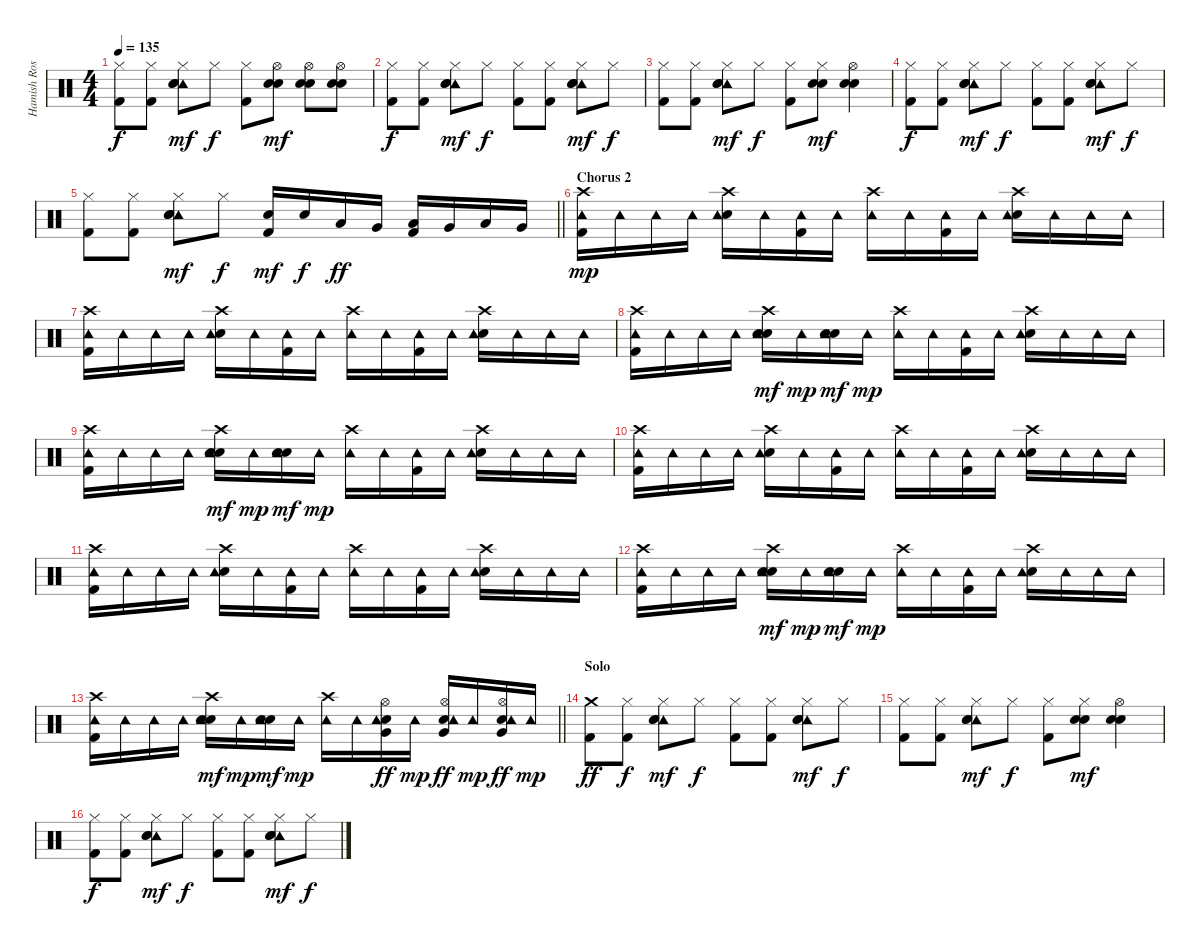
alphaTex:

\track ("Hamish Rosser (Drums Track)" "Hamish Ros") {instrument percussion}
\staff {score}
\articulation defaults
\ts (4 4)
\tempo 135
\clef neutral
\ks c
("Hi-Hat (closed)" "Kick (hit) 2").8{dy f} ("Hi-Hat (closed)" "Kick (hit) 2").8 ("Hi-Hat (closed)" "Tambourine (hit)" "Electric Snare (hit)" "Hand Clap (hit)").8{dy mf} "Hi-Hat (closed)".8{dy f} ("Hi-Hat (closed)" "Kick (hit) 2").8 ("Hi-Hat (open)" "Electric Snare (hit)" "Hand Clap (hit)").8{dy mf} ("Hi-Hat (open)" "Electric Snare (hit)" "Hand Clap (hit)").8 ("Hi-Hat (open)" "Electric Snare (hit)" "Hand Clap (hit)").8 |
("Hi-Hat (closed)" "Kick (hit) 2").8{dy f} ("Hi-Hat (closed)" "Kick (hit) 2").8 ("Hi-Hat (closed)" "Tambourine (hit)" "Electric Snare (hit)" "Hand Clap (hit)").8{dy mf} "Hi-Hat (closed)".8{dy f} ("Hi-Hat (closed)" "Kick (hit) 2").8 ("Hi-Hat (closed)" "Kick (hit) 2").8 ("Hi-Hat (closed)" "Tambourine (hit)" "Electric Snare (hit)" "Hand Clap (hit)").8{dy mf} "Hi-Hat (closed)".8{dy f} |
("Hi-Hat (closed)" "Kick (hit) 2").8 ("Hi-Hat (closed)" "Kick (hit) 2").8 ("Hi-Hat (closed)" "Tambourine (hit)" "Electric Snare (hit)" "Hand Clap (hit)").8{dy mf} "Hi-Hat (closed)".8{dy f} ("Hi-Hat (closed)" "Kick (hit) 2").8 ("Hi-Hat (closed)" "Electric Snare (hit)" "Hand Clap (hit)").8{dy mf} ("Hi-Hat (open)" "Electric Snare (hit)" "Hand Clap (hit)").4 |
("Hi-Hat (closed)" "Kick (hit) 2").8{dy f} ("Hi-Hat (closed)" "Kick (hit) 2").8 ("Hi-Hat (closed)" "Tambourine (hit)" "Electric Snare (hit)" "Hand Clap (hit)").8{dy mf} "Hi-Hat (closed)".8{dy f} ("Hi-Hat (closed)" "Kick (hit) 2").8 ("Hi-Hat (closed)" "Kick (hit) 2").8 ("Hi-Hat (closed)" "Tambourine (hit)" "Electric Snare (hit)" "Hand Clap (hit)").8{dy mf} "Hi-Hat (closed)".8{dy f} |
\barLineRight lightlight
("Hi-Hat (closed)" "Kick (hit) 2").8 ("Hi-Hat (closed)" "Kick (hit) 2").8 ("Hi-Hat (closed)" "Tambourine (hit)" "Electric Snare (hit)" "Hand Clap (hit)").8{dy mf} "Hi-Hat (closed)".8{dy f} ("Electric Snare (hit)" "Kick (hit) 2").16{dy mf} "Electric Snare (hit)".16{dy f} "Low Tom (hit)".16{dy ff} "Very Low Tom (hit)".16 ("Low Tom (hit)" "Kick (hit) 2").16 "Very Low Tom (hit)".16 "Low Tom (hit)".16 "Very Low Tom (hit)".16 |
\section ("" "Chorus 2")
("Crash high (hit)" "Tambourine (hit)" "Kick (hit) 2").16{dy mp} "Tambourine (hit)".16 "Tambourine (hit)".16 "Tambourine (hit)".16 ("Crash high (hit)" "Electric Snare (hit)" "Tambourine (hit)").16 "Tambourine (hit)".16 ("Tambourine (hit)" "Kick (hit) 2").16 "Tambourine (hit)".16 ("Crash high (hit)" "Tambourine (hit)").16 "Tambourine (hit)".16 ("Tambourine (hit)" "Kick (hit) 2").16 "Tambourine (hit)".16 ("Crash high (hit)" "Electric Snare (hit)" "Tambourine (hit)").16 "Tambourine (hit)".16 "Tambourine (hit)".16 "Tambourine (hit)".16 |
("Crash high (hit)" "Tambourine (hit)" "Kick (hit) 2").16 "Tambourine (hit)".16 "Tambourine (hit)".16 "Tambourine (hit)".16 ("Crash high (hit)" "Electric Snare (hit)" "Tambourine (hit)").16 "Tambourine (hit)".16 ("Tambourine (hit)" "Kick (hit) 2").16 "Tambourine (hit)".16 ("Crash high (hit)" "Tambourine (hit)").16 "Tambourine (hit)".16 ("Tambourine (hit)" "Kick (hit) 2").16 "Tambourine (hit)".16 ("Crash high (hit)" "Electric Snare (hit)" "Tambourine (hit)").16 "Tambourine (hit)".16 "Tambourine (hit)".16 "Tambourine (hit)".16 |
("Crash high (hit)" "Tambourine (hit)" "Kick (hit) 2").16 "Tambourine (hit)".16 "Tambourine (hit)".16 "Tambourine (hit)".16 ("Crash high (hit)" "Electric Snare (hit)" "Tambourine (hit)" "Hand Clap (hit)").16{dy mf} "Tambourine (hit)".16{dy mp} ("Electric Snare (hit)" "Tambourine (hit)" "Hand Clap (hit)").16{dy mf} "Tambourine (hit)".16{dy mp} ("Crash high (hit)" "Tambourine (hit)").16 "Tambourine (hit)".16 ("Tambourine (hit)" "Kick (hit) 2").16 "Tambourine (hit)".16 ("Crash high (hit)" "Electric Snare (hit)" "Tambourine (hit)").16 "Tambourine (hit)".16 "Tambourine (hit)".16 "Tambourine (hit)".16 |
("Crash high (hit)" "Tambourine (hit)" "Kick (hit) 2").16 "Tambourine (hit)".16 "Tambourine (hit)".16 "Tambourine (hit)".16 ("Crash high (hit)" "Electric Snare (hit)" "Tambourine (hit)" "Hand Clap (hit)").16{dy mf} "Tambourine (hit)".16{dy mp} ("Electric Snare (hit)" "Tambourine (hit)" "Hand Clap (hit)").16{dy mf} "Tambourine (hit)".16{dy mp} ("Crash high (hit)" "Tambourine (hit)").16 "Tambourine (hit)".16 ("Tambourine (hit)" "Kick (hit) 2").16 "Tambourine (hit)".16 ("Crash high (hit)" "Electric Snare (hit)" "Tambourine (hit)").16 "Tambourine (hit)".16 "Tambourine (hit)".16 "Tambourine (hit)".16 |
("Crash high (hit)" "Tambourine (hit)" "Kick (hit) 2").16 "Tambourine (hit)".16 "Tambourine (hit)".16 "Tambourine (hit)".16 ("Crash high (hit)" "Electric Snare (hit)" "Tambourine (hit)").16 "Tambourine (hit)".16 ("Tambourine (hit)" "Kick (hit) 2").16 "Tambourine (hit)".16 ("Crash high (hit)" "Tambourine (hit)").16 "Tambourine (hit)".16 ("Tambourine (hit)" "Kick (hit) 2").16 "Tambourine (hit)".16 ("Crash high (hit)" "Electric Snare (hit)" "Tambourine (hit)").16 "Tambourine (hit)".16 "Tambourine (hit)".16 "Tambourine (hit)".16 |
("Crash high (hit)" "Tambourine (hit)" "Kick (hit) 2").16 "Tambourine (hit)".16 "Tambourine (hit)".16 "Tambourine (hit)".16 ("Crash high (hit)" "Electric Snare (hit)" "Tambourine (hit)").16 "Tambourine (hit)".16 ("Tambourine (hit)" "Kick (hit) 2").16 "Tambourine (hit)".16 ("Crash high (hit)" "Tambourine (hit)").16 "Tambourine (hit)".16 ("Tambourine (hit)" "Kick (hit) 2").16 "Tambourine (hit)".16 ("Crash high (hit)" "Electric Snare (hit)" "Tambourine (hit)").16 "Tambourine (hit)".16 "Tambourine (hit)".16 "Tambourine (hit)".16 |
("Crash high (hit)" "Tambourine (hit)" "Kick (hit) 2").16 "Tambourine (hit)".16 "Tambourine (hit)".16 "Tambourine (hit)".16 ("Crash high (hit)" "Electric Snare (hit)" "Tambourine (hit)" "Hand Clap (hit)").16{dy mf} "Tambourine (hit)".16{dy mp} ("Electric Snare (hit)" "Tambourine (hit)" "Hand Clap (hit)").16{dy mf} "Tambourine (hit)".16{dy mp} ("Crash high (hit)" "Tambourine (hit)").16 "Tambourine (hit)".16 ("Tambourine (hit)" "Kick (hit) 2").16 "Tambourine (hit)".16 ("Crash high (hit)" "Electric Snare (hit)" "Tambourine (hit)").16 "Tambourine (hit)".16 "Tambourine (hit)".16 "Tambourine (hit)".16 |
\barLineRight lightlight
("Crash high (hit)" "Tambourine (hit)" "Kick (hit) 2").16 "Tambourine (hit)".16 "Tambourine (hit)".16 "Tambourine (hit)".16 ("Crash high (hit)" "Electric Snare (hit)" "Tambourine (hit)" "Hand Clap (hit)").16{dy mf} "Tambourine (hit)".16{dy mp} ("Electric Snare (hit)" "Tambourine (hit)" "Hand Clap (hit)").16{dy mf} "Tambourine (hit)".16{dy mp} ("Crash high (hit)" "Tambourine (hit)").16 "Tambourine (hit)".16 ("Hi-Hat (open)" "Electric Snare (hit)" "Tambourine (hit)" "Very Low Tom (hit)").16{dy ff} "Tambourine (hit)".16{dy mp} ("Hi-Hat (open)" "Electric Snare (hit)" "Tambourine (hit)" "Very Low Tom (hit)").16{dy ff} "Tambourine (hit)".16{dy mp} ("Hi-Hat (open)" "Electric Snare (hit)" "Tambourine (hit)" "Very Low Tom (hit)").16{dy ff} "Tambourine (hit)".16{dy mp} |
\section ("" "Solo")
("Crash medium (hit)" "Kick (hit) 2").8{dy ff} ("Hi-Hat (closed)" "Kick (hit) 2").8{dy f} ("Hi-Hat (closed)" "Tambourine (hit)" "Electric Snare (hit)" "Hand Clap (hit)").8{dy mf} "Hi-Hat (closed)".8{dy f} ("Hi-Hat (closed)" "Kick (hit) 2").8 ("Hi-Hat (closed)" "Kick (hit) 2").8 ("Hi-Hat (closed)" "Tambourine (hit)" "Electric Snare (hit)" "Hand Clap (hit)").8{dy mf} "Hi-Hat (closed)".8{dy f} |
("Hi-Hat (closed)" "Kick (hit) 2").8 ("Hi-Hat (closed)" "Kick (hit) 2").8 ("Hi-Hat (closed)" "Tambourine (hit)" "Electric Snare (hit)" "Hand Clap (hit)").8{dy mf} "Hi-Hat (closed)".8{dy f} ("Hi-Hat (closed)" "Kick (hit) 2").8 ("Hi-Hat (closed)" "Electric Snare (hit)" "Hand Clap (hit)").8{dy mf} ("Hi-Hat (open)" "Electric Snare (hit)" "Hand Clap (hit)").4 |
("Hi-Hat (closed)" "Kick (hit) 2").8{dy f} ("Hi-Hat (closed)" "Kick (hit) 2").8 ("Hi-Hat (closed)" "Tambourine (hit)" "Electric Snare (hit)" "Hand Clap (hit)").8{dy mf} "Hi-Hat (closed)".8{dy f} ("Hi-Hat (closed)" "Kick (hit) 2").8 ("Hi-Hat (closed)" "Kick (hit) 2").8 ("Hi-Hat (closed)" "Tambourine (hit)" "Electric Snare (hit)" "Hand Clap (hit)").8{dy mf} "Hi-Hat (closed)".8{dy f}
